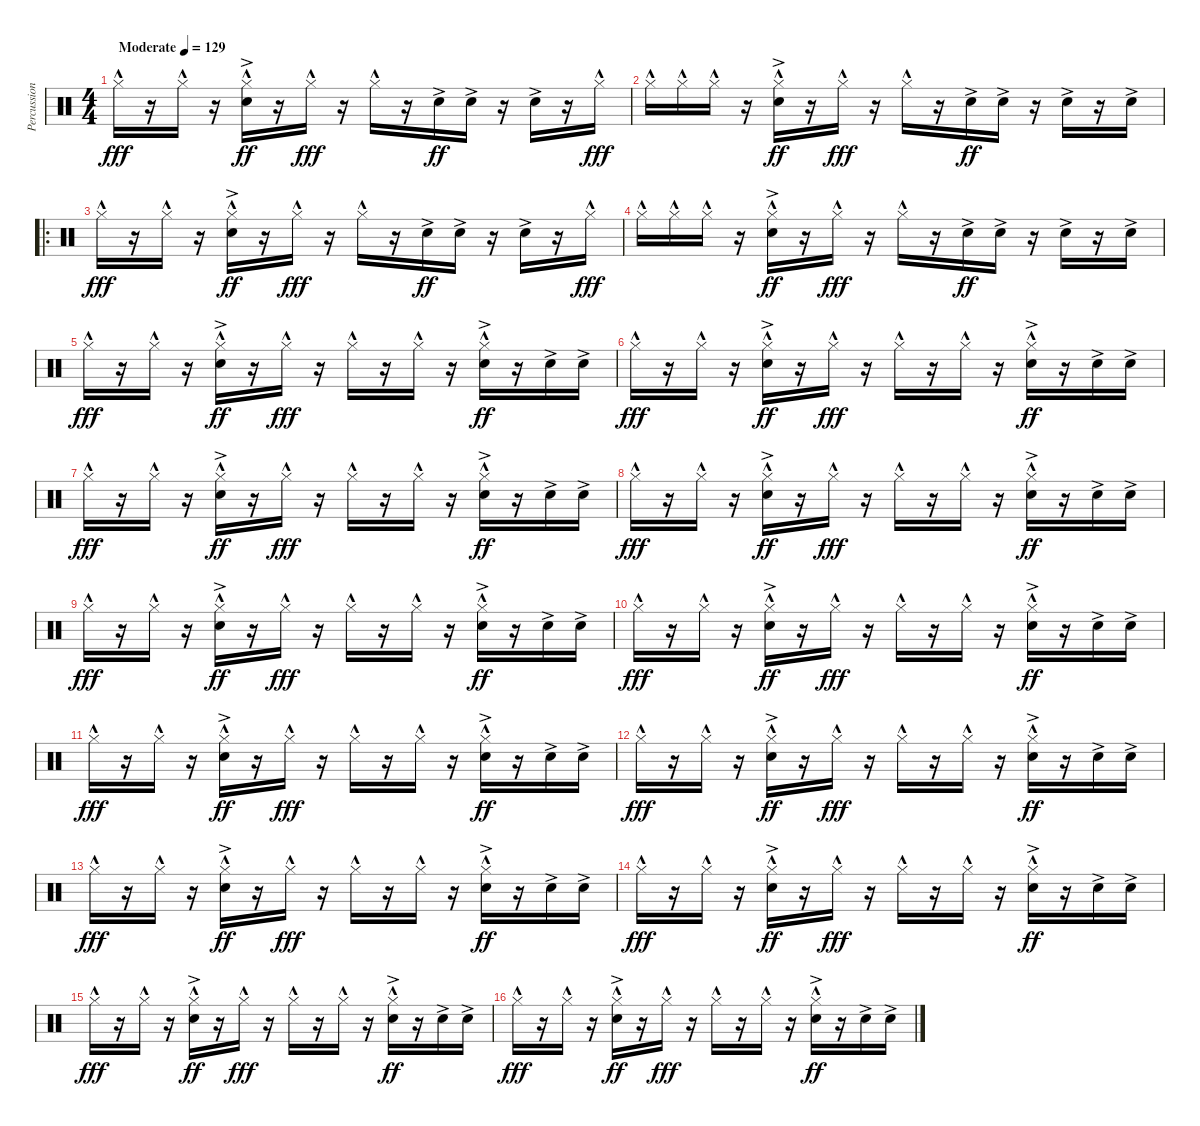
\track ("Percussion" "Percussion") {instrument percussion}
\staff {score}
\articulation defaults
\ts (4 4)
\tempo (129 "Moderate")
\clef neutral
\ks c "Hi-Hat (closed)"{hac}.16{dy fff}
r.16 "Hi-Hat (closed)"{hac}.16 r.16 ("Hi-Hat (closed)"{hac} "Snare (hit) 2"{ac}).16{dy ff} r.16 "Hi-Hat (closed)"{hac}.16{dy fff} r.16 "Hi-Hat (closed)"{hac}.16 r.16 "Snare (hit) 2"{ac}.16{dy ff} "Snare (hit) 2"{ac}.16 r.16 "Snare (hit) 2"{ac}.16 r.16 "Hi-Hat (closed)"{hac}.16{dy fff} |
"Hi-Hat (closed)"{hac}.16 "Hi-Hat (closed)"{hac}.16 "Hi-Hat (closed)"{hac}.16 r.16 ("Hi-Hat (closed)"{hac} "Snare (hit) 2"{ac}).16{dy ff} r.16 "Hi-Hat (closed)"{hac}.16{dy fff} r.16 "Hi-Hat (closed)"{hac}.16 r.16 "Snare (hit) 2"{ac}.16{dy ff} "Snare (hit) 2"{ac}.16 r.16 "Snare (hit) 2"{ac}.16 r.16 "Snare (hit) 2"{ac}.16 |
\ro "Hi-Hat (closed)"{hac}.16{dy fff}
r.16 "Hi-Hat (closed)"{hac}.16 r.16 ("Hi-Hat (closed)"{hac} "Snare (hit) 2"{ac}).16{dy ff} r.16 "Hi-Hat (closed)"{hac}.16{dy fff} r.16 "Hi-Hat (closed)"{hac}.16 r.16 "Snare (hit) 2"{ac}.16{dy ff} "Snare (hit) 2"{ac}.16 r.16 "Snare (hit) 2"{ac}.16 r.16 "Hi-Hat (closed)"{hac}.16{dy fff} |
"Hi-Hat (closed)"{hac}.16 "Hi-Hat (closed)"{hac}.16 "Hi-Hat (closed)"{hac}.16 r.16 ("Hi-Hat (closed)"{hac} "Snare (hit) 2"{ac}).16{dy ff} r.16 "Hi-Hat (closed)"{hac}.16{dy fff} r.16 "Hi-Hat (closed)"{hac}.16 r.16 "Snare (hit) 2"{ac}.16{dy ff} "Snare (hit) 2"{ac}.16 r.16 "Snare (hit) 2"{ac}.16 r.16 "Snare (hit) 2"{ac}.16 |
"Hi-Hat (closed)"{hac}.16{dy fff} r.16 "Hi-Hat (closed)"{hac}.16 r.16 ("Hi-Hat (closed)"{hac} "Snare (hit) 2"{ac}).16{dy ff} r.16 "Hi-Hat (closed)"{hac}.16{dy fff} r.16 "Hi-Hat (closed)"{hac}.16 r.16 "Hi-Hat (closed)"{hac}.16 r.16 ("Hi-Hat (closed)"{hac} "Snare (hit) 2"{ac}).16{dy ff} r.16 "Snare (hit) 2"{ac}.16 "Snare (hit) 2"{ac}.16 |
"Hi-Hat (closed)"{hac}.16{dy fff} r.16 "Hi-Hat (closed)"{hac}.16 r.16 ("Hi-Hat (closed)"{hac} "Snare (hit) 2"{ac}).16{dy ff} r.16 "Hi-Hat (closed)"{hac}.16{dy fff} r.16 "Hi-Hat (closed)"{hac}.16 r.16 "Hi-Hat (closed)"{hac}.16 r.16 ("Hi-Hat (closed)"{hac} "Snare (hit) 2"{ac}).16{dy ff} r.16 "Snare (hit) 2"{ac}.16 "Snare (hit) 2"{ac}.16 |
"Hi-Hat (closed)"{hac}.16{dy fff} r.16 "Hi-Hat (closed)"{hac}.16 r.16 ("Hi-Hat (closed)"{hac} "Snare (hit) 2"{ac}).16{dy ff} r.16 "Hi-Hat (closed)"{hac}.16{dy fff} r.16 "Hi-Hat (closed)"{hac}.16 r.16 "Hi-Hat (closed)"{hac}.16 r.16 ("Hi-Hat (closed)"{hac} "Snare (hit) 2"{ac}).16{dy ff} r.16 "Snare (hit) 2"{ac}.16 "Snare (hit) 2"{ac}.16 |
"Hi-Hat (closed)"{hac}.16{dy fff} r.16 "Hi-Hat (closed)"{hac}.16 r.16 ("Hi-Hat (closed)"{hac} "Snare (hit) 2"{ac}).16{dy ff} r.16 "Hi-Hat (closed)"{hac}.16{dy fff} r.16 "Hi-Hat (closed)"{hac}.16 r.16 "Hi-Hat (closed)"{hac}.16 r.16 ("Hi-Hat (closed)"{hac} "Snare (hit) 2"{ac}).16{dy ff} r.16 "Snare (hit) 2"{ac}.16 "Snare (hit) 2"{ac}.16 |
"Hi-Hat (closed)"{hac}.16{dy fff} r.16 "Hi-Hat (closed)"{hac}.16 r.16 ("Hi-Hat (closed)"{hac} "Snare (hit) 2"{ac}).16{dy ff} r.16 "Hi-Hat (closed)"{hac}.16{dy fff} r.16 "Hi-Hat (closed)"{hac}.16 r.16 "Hi-Hat (closed)"{hac}.16 r.16 ("Hi-Hat (closed)"{hac} "Snare (hit) 2"{ac}).16{dy ff} r.16 "Snare (hit) 2"{ac}.16 "Snare (hit) 2"{ac}.16 |
"Hi-Hat (closed)"{hac}.16{dy fff} r.16 "Hi-Hat (closed)"{hac}.16 r.16 ("Hi-Hat (closed)"{hac} "Snare (hit) 2"{ac}).16{dy ff} r.16 "Hi-Hat (closed)"{hac}.16{dy fff} r.16 "Hi-Hat (closed)"{hac}.16 r.16 "Hi-Hat (closed)"{hac}.16 r.16 ("Hi-Hat (closed)"{hac} "Snare (hit) 2"{ac}).16{dy ff} r.16 "Snare (hit) 2"{ac}.16 "Snare (hit) 2"{ac}.16 |
"Hi-Hat (closed)"{hac}.16{dy fff} r.16 "Hi-Hat (closed)"{hac}.16 r.16 ("Hi-Hat (closed)"{hac} "Snare (hit) 2"{ac}).16{dy ff} r.16 "Hi-Hat (closed)"{hac}.16{dy fff} r.16 "Hi-Hat (closed)"{hac}.16 r.16 "Hi-Hat (closed)"{hac}.16 r.16 ("Hi-Hat (closed)"{hac} "Snare (hit) 2"{ac}).16{dy ff} r.16 "Snare (hit) 2"{ac}.16 "Snare (hit) 2"{ac}.16 |
"Hi-Hat (closed)"{hac}.16{dy fff} r.16 "Hi-Hat (closed)"{hac}.16 r.16 ("Hi-Hat (closed)"{hac} "Snare (hit) 2"{ac}).16{dy ff} r.16 "Hi-Hat (closed)"{hac}.16{dy fff} r.16 "Hi-Hat (closed)"{hac}.16 r.16 "Hi-Hat (closed)"{hac}.16 r.16 ("Hi-Hat (closed)"{hac} "Snare (hit) 2"{ac}).16{dy ff} r.16 "Snare (hit) 2"{ac}.16 "Snare (hit) 2"{ac}.16 |
"Hi-Hat (closed)"{hac}.16{dy fff} r.16 "Hi-Hat (closed)"{hac}.16 r.16 ("Hi-Hat (closed)"{hac} "Snare (hit) 2"{ac}).16{dy ff} r.16 "Hi-Hat (closed)"{hac}.16{dy fff} r.16 "Hi-Hat (closed)"{hac}.16 r.16 "Hi-Hat (closed)"{hac}.16 r.16 ("Hi-Hat (closed)"{hac} "Snare (hit) 2"{ac}).16{dy ff} r.16 "Snare (hit) 2"{ac}.16 "Snare (hit) 2"{ac}.16 |
"Hi-Hat (closed)"{hac}.16{dy fff} r.16 "Hi-Hat (closed)"{hac}.16 r.16 ("Hi-Hat (closed)"{hac} "Snare (hit) 2"{ac}).16{dy ff} r.16 "Hi-Hat (closed)"{hac}.16{dy fff} r.16 "Hi-Hat (closed)"{hac}.16 r.16 "Hi-Hat (closed)"{hac}.16 r.16 ("Hi-Hat (closed)"{hac} "Snare (hit) 2"{ac}).16{dy ff} r.16 "Snare (hit) 2"{ac}.16 "Snare (hit) 2"{ac}.16 |
"Hi-Hat (closed)"{hac}.16{dy fff} r.16 "Hi-Hat (closed)"{hac}.16 r.16 ("Hi-Hat (closed)"{hac} "Snare (hit) 2"{ac}).16{dy ff} r.16 "Hi-Hat (closed)"{hac}.16{dy fff} r.16 "Hi-Hat (closed)"{hac}.16 r.16 "Hi-Hat (closed)"{hac}.16 r.16 ("Hi-Hat (closed)"{hac} "Snare (hit) 2"{ac}).16{dy ff} r.16 "Snare (hit) 2"{ac}.16 "Snare (hit) 2"{ac}.16 |
"Hi-Hat (closed)"{hac}.16{dy fff} r.16 "Hi-Hat (closed)"{hac}.16 r.16 ("Hi-Hat (closed)"{hac} "Snare (hit) 2"{ac}).16{dy ff} r.16 "Hi-Hat (closed)"{hac}.16{dy fff} r.16 "Hi-Hat (closed)"{hac}.16 r.16 "Hi-Hat (closed)"{hac}.16 r.16 ("Hi-Hat (closed)"{hac} "Snare (hit) 2"{ac}).16{dy ff} r.16 "Snare (hit) 2"{ac}.16 "Snare (hit) 2"{ac}.16
